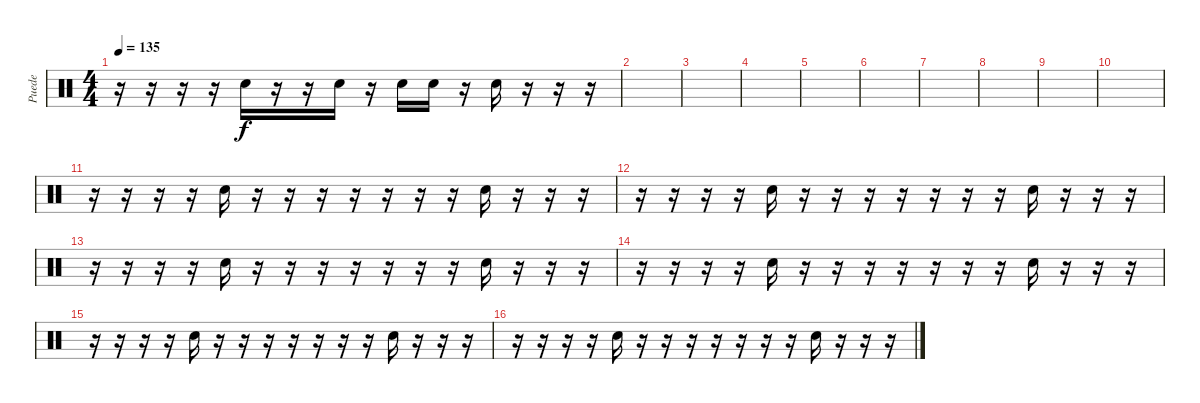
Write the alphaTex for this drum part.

\track ("Puede" "Puede") {instrument percussion}
\staff {score}
\articulation defaults
\ts (4 4)
\tempo 135
\clef neutral
\ks c
r.16{dy f} r.16 r.16 r.16 "Hand Clap (hit)".16 r.16 r.16 "Hand Clap (hit)".16 r.16 "Hand Clap (hit)".16 "Hand Clap (hit)".16 r.16 "Hand Clap (hit)".16 r.16 r.16 r.16 |
|
|
|
|
|
|
|
|
|
r.16 r.16 r.16 r.16 "Hand Clap (hit)".16 r.16 r.16 r.16 r.16 r.16 r.16 r.16 "Hand Clap (hit)".16 r.16 r.16 r.16 |
r.16 r.16 r.16 r.16 "Hand Clap (hit)".16 r.16 r.16 r.16 r.16 r.16 r.16 r.16 "Hand Clap (hit)".16 r.16 r.16 r.16 |
r.16 r.16 r.16 r.16 "Hand Clap (hit)".16 r.16 r.16 r.16 r.16 r.16 r.16 r.16 "Hand Clap (hit)".16 r.16 r.16 r.16 |
r.16 r.16 r.16 r.16 "Hand Clap (hit)".16 r.16 r.16 r.16 r.16 r.16 r.16 r.16 "Hand Clap (hit)".16 r.16 r.16 r.16 |
r.16 r.16 r.16 r.16 "Hand Clap (hit)".16 r.16 r.16 r.16 r.16 r.16 r.16 r.16 "Hand Clap (hit)".16 r.16 r.16 r.16 |
r.16 r.16 r.16 r.16 "Hand Clap (hit)".16 r.16 r.16 r.16 r.16 r.16 r.16 r.16 "Hand Clap (hit)".16 r.16 r.16 r.16
